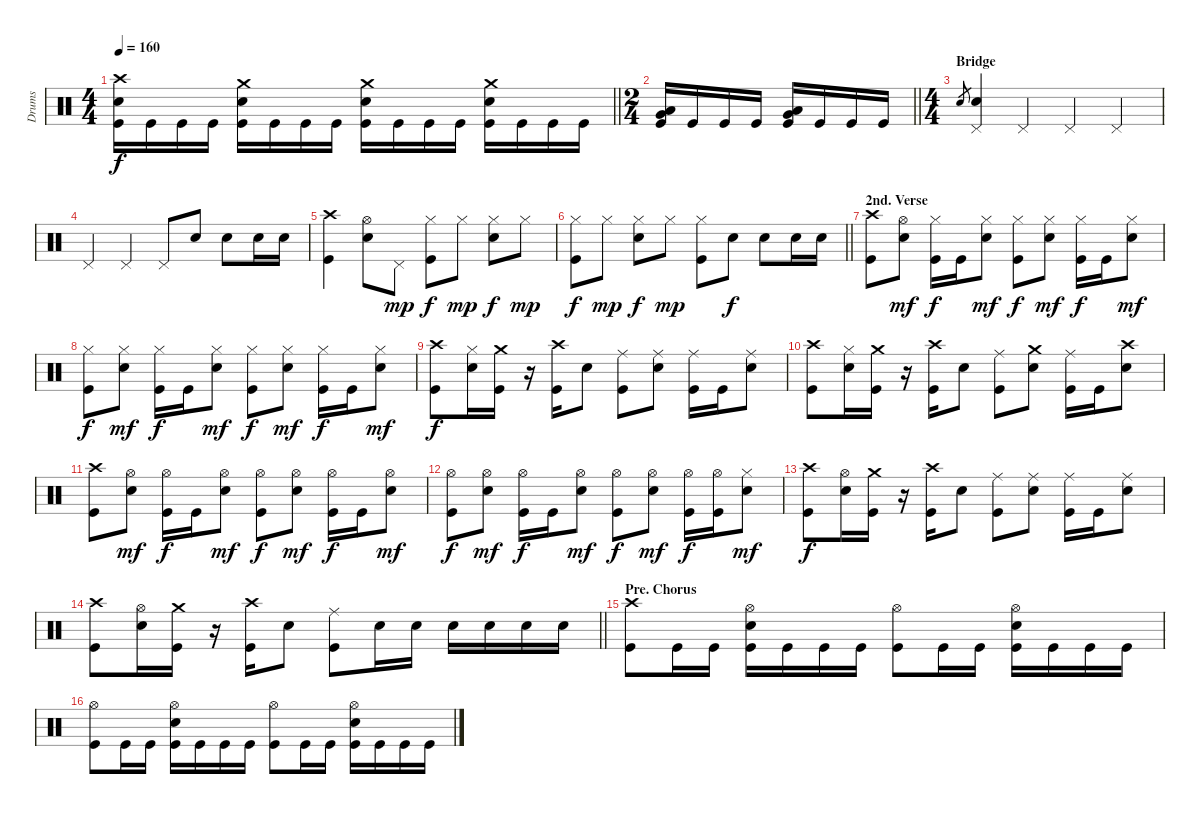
\track ("Drums" "Drums") {instrument percussion}
\staff {score}
\articulation defaults
\ts (4 4)
\tempo 160
\clef neutral
\barLineRight lightlight
\ks c
("Crash high (hit)" "Snare (hit) 2" "Kick (hit)").16{dy f} "Kick (hit)".16 "Kick (hit)".16 "Kick (hit)".16 ("Crash medium (hit)" "Snare (hit) 2" "Kick (hit)").16 "Kick (hit)".16 "Kick (hit)".16 "Kick (hit)".16 ("Crash medium (hit)" "Snare (hit) 2" "Kick (hit)").16 "Kick (hit)".16 "Kick (hit)".16 "Kick (hit)".16 ("Crash medium (hit)" "Snare (hit) 2" "Kick (hit)").16 "Kick (hit)".16 "Kick (hit)".16 "Kick (hit)".16 |
\ts (2 4)
\barLineRight lightlight
("Low Tom (hit)" "Very Low Tom (hit)" "Kick (hit)").16 "Kick (hit)".16 "Kick (hit)".16 "Kick (hit)".16 ("Low Tom (hit)" "Very Low Tom (hit)" "Kick (hit)").16 "Kick (hit)".16 "Kick (hit)".16 "Kick (hit)".16 |
\ts (4 4)
\section ("" "Bridge")
"Snare (hit) 2".8{gr} ("Snare (hit) 2" "Pedal Hi-Hat (hit)").4 "Pedal Hi-Hat (hit)".4 "Pedal Hi-Hat (hit)".4 "Pedal Hi-Hat (hit)".4 |
"Pedal Hi-Hat (hit)".4 "Pedal Hi-Hat (hit)".4 "Pedal Hi-Hat (hit)".8 "Snare (hit) 2".8 "Snare (hit) 2".8 "Snare (hit) 2".16 "Snare (hit) 2".16 |
("Crash high (hit)" "Kick (hit)").4 ("Hi-Hat (open)" "Snare (hit) 2").8 "Pedal Hi-Hat (hit)".8{dy mp} ("Hi-Hat (closed)" "Kick (hit)").8{dy f} "Hi-Hat (closed)".8{dy mp} ("Hi-Hat (closed)" "Snare (hit) 2").8{dy f} "Hi-Hat (closed)".8{dy mp} |
\barLineRight lightlight
("Hi-Hat (closed)" "Kick (hit)").8{dy f} "Hi-Hat (closed)".8{dy mp} ("Hi-Hat (closed)" "Snare (hit) 2").8{dy f} "Hi-Hat (closed)".8{dy mp} ("Hi-Hat (closed)" "Kick (hit)").8 "Snare (hit) 2".8{dy f} "Snare (hit) 2".8 "Snare (hit) 2".16 "Snare (hit) 2".16 |
\section ("" "2nd. Verse")
("Crash high (hit)" "Kick (hit)").8 ("Hi-Hat (open)" "Snare (hit) 2").8{dy mf} ("Hi-Hat (closed)" "Kick (hit)").16{dy f} "Kick (hit)".16 ("Hi-Hat (closed)" "Snare (hit) 2").8{dy mf} ("Hi-Hat (closed)" "Kick (hit)").8{dy f} ("Hi-Hat (closed)" "Snare (hit) 2").8{dy mf} ("Hi-Hat (closed)" "Kick (hit)").16{dy f} "Kick (hit)".16 ("Hi-Hat (closed)" "Snare (hit) 2").8{dy mf} |
("Hi-Hat (closed)" "Kick (hit)").8{dy f} ("Hi-Hat (closed)" "Snare (hit) 2").8{dy mf} ("Hi-Hat (closed)" "Kick (hit)").16{dy f} "Kick (hit)".16 ("Hi-Hat (closed)" "Snare (hit) 2").8{dy mf} ("Hi-Hat (closed)" "Kick (hit)").8{dy f} ("Hi-Hat (closed)" "Snare (hit) 2").8{dy mf} ("Hi-Hat (closed)" "Kick (hit)").16{dy f} "Kick (hit)".16 ("Hi-Hat (closed)" "Snare (hit) 2").8{dy mf} |
("Crash high (hit)" "Kick (hit)").8{dy f} ("Hi-Hat (closed)" "Snare (hit) 2").16 ("Crash medium (hit)" "Kick (hit)").16 r.16 ("Crash high (hit)" "Kick (hit)").16 "Snare (hit) 2".8 ("Ride (middle)" "Kick (hit)").8 ("Ride (middle)" "Snare (hit) 2").8 ("Ride (middle)" "Kick (hit)").16 "Kick (hit)".16 ("Ride (middle)" "Snare (hit) 2").8 |
("Crash high (hit)" "Kick (hit)").8 ("Hi-Hat (closed)" "Snare (hit) 2").16 ("Crash medium (hit)" "Kick (hit)").16 r.16 ("Crash high (hit)" "Kick (hit)").16 "Snare (hit) 2".8 ("Ride (middle)" "Kick (hit)").8 ("Crash medium (hit)" "Snare (hit) 2").8 ("Ride (middle)" "Kick (hit)").16 "Kick (hit)".16 ("Crash high (hit)" "Snare (hit) 2").8 |
("Crash high (hit)" "Kick (hit)").8 ("Hi-Hat (open)" "Snare (hit) 2").8{dy mf} ("Hi-Hat (open)" "Kick (hit)").16{dy f} "Kick (hit)".16 ("Hi-Hat (open)" "Snare (hit) 2").8{dy mf} ("Hi-Hat (open)" "Kick (hit)").8{dy f} ("Hi-Hat (open)" "Snare (hit) 2").8{dy mf} ("Hi-Hat (open)" "Kick (hit)").16{dy f} "Kick (hit)".16 ("Hi-Hat (open)" "Snare (hit) 2").8{dy mf} |
("Hi-Hat (open)" "Kick (hit)").8{dy f} ("Hi-Hat (open)" "Snare (hit) 2").8{dy mf} ("Hi-Hat (open)" "Kick (hit)").16{dy f} "Kick (hit)".16 ("Hi-Hat (open)" "Snare (hit) 2").8{dy mf} ("Hi-Hat (open)" "Kick (hit)").8{dy f} ("Hi-Hat (open)" "Snare (hit) 2").8{dy mf} ("Hi-Hat (open)" "Kick (hit)").16{dy f} ("Hi-Hat (open)" "Kick (hit)").16 ("Hi-Hat (closed)" "Snare (hit) 2").8{dy mf} |
("Crash high (hit)" "Kick (hit)").8{dy f} ("Hi-Hat (open)" "Snare (hit) 2").16 ("Crash medium (hit)" "Kick (hit)").16 r.16 ("Crash high (hit)" "Kick (hit)").16 "Snare (hit) 2".8 ("Ride (middle)" "Kick (hit)").8 ("Ride (middle)" "Snare (hit) 2").8 ("Ride (middle)" "Kick (hit)").16 "Kick (hit)".16 ("Ride (middle)" "Snare (hit) 2").8 |
\barLineRight lightlight
("Crash high (hit)" "Kick (hit)").8 ("Hi-Hat (open)" "Snare (hit) 2").16 ("Crash medium (hit)" "Kick (hit)").16 r.16 ("Crash high (hit)" "Kick (hit)").16 "Snare (hit) 2".8 ("Ride (middle)" "Kick (hit)").8 "Snare (hit) 2".16 "Snare (hit) 2".16 "Snare (hit) 2".16 "Snare (hit) 2".16 "Snare (hit) 2".16 "Snare (hit) 2".16 |
\section ("" "Pre. Chorus")
("Crash high (hit)" "Kick (hit)").8 "Kick (hit)".16 "Kick (hit)".16 ("Hi-Hat (open)" "Snare (hit) 2" "Kick (hit)").16 "Kick (hit)".16 "Kick (hit)".16 "Kick (hit)".16 ("Hi-Hat (open)" "Kick (hit)").8 "Kick (hit)".16 "Kick (hit)".16 ("Hi-Hat (open)" "Snare (hit) 2" "Kick (hit)").16 "Kick (hit)".16 "Kick (hit)".16 "Kick (hit)".16 |
("Hi-Hat (open)" "Kick (hit)").8 "Kick (hit)".16 "Kick (hit)".16 ("Hi-Hat (open)" "Snare (hit) 2" "Kick (hit)").16 "Kick (hit)".16 "Kick (hit)".16 "Kick (hit)".16 ("Hi-Hat (open)" "Kick (hit)").8 "Kick (hit)".16 "Kick (hit)".16 ("Hi-Hat (open)" "Snare (hit) 2" "Kick (hit)").16 "Kick (hit)".16 "Kick (hit)".16 "Kick (hit)".16
